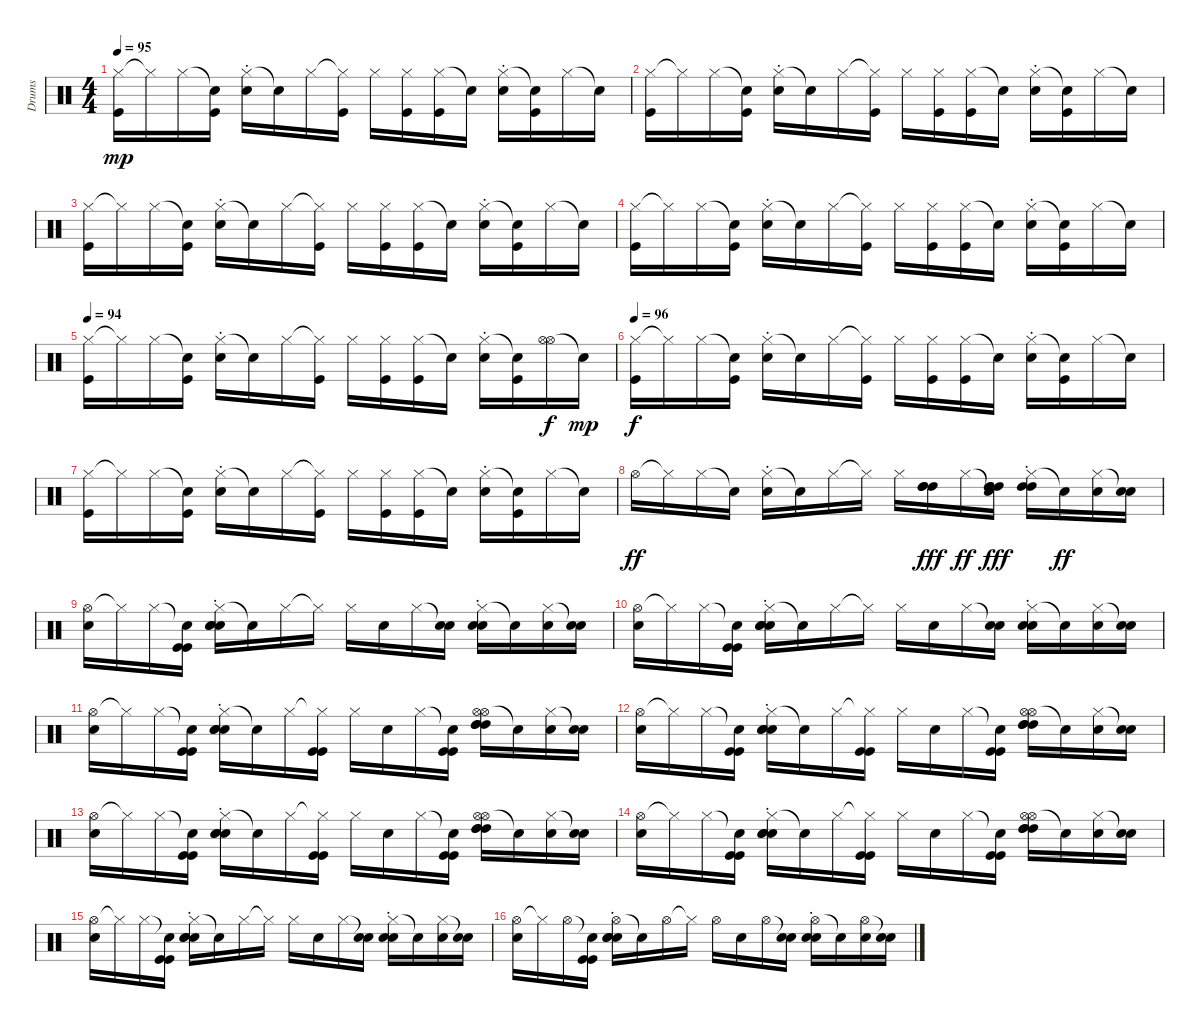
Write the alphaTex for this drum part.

\track ("Drums" "Drums") {instrument percussion}
\staff {score}
\articulation defaults
\ts (4 4)
\tempo 95
\clef neutral
\ks c
("Hi-Hat (closed)" "Kick (hit)").16{dy mp} "Hi-Hat (closed)"{t}.16 "Hi-Hat (closed)".16 ("Snare (hit)"{t} "Kick (hit)").16 ("Hi-Hat (closed)" "Snare (hit) 2"{st}).16 "Snare (hit)"{t}.16 "Hi-Hat (closed)".16 ("Hi-Hat (closed)"{t} "Kick (hit)").16 "Hi-Hat (closed)".16 ("Hi-Hat (closed)" "Kick (hit)").16 ("Hi-Hat (closed)" "Kick (hit)").16 "Snare (hit)"{t}.16 ("Hi-Hat (closed)" "Snare (hit) 2"{st}).16 ("Snare (hit)"{t} "Kick (hit)").16 "Hi-Hat (closed)".16 "Snare (hit)"{t}.16 |
("Hi-Hat (closed)" "Kick (hit)").16 "Hi-Hat (closed)"{t}.16 "Hi-Hat (closed)".16 ("Snare (hit)"{t} "Kick (hit)").16 ("Hi-Hat (closed)" "Snare (hit) 2"{st}).16 "Snare (hit)"{t}.16 "Hi-Hat (closed)".16 ("Hi-Hat (closed)"{t} "Kick (hit)").16 "Hi-Hat (closed)".16 ("Hi-Hat (closed)" "Kick (hit)").16 ("Hi-Hat (closed)" "Kick (hit)").16 "Snare (hit)"{t}.16 ("Hi-Hat (closed)" "Snare (hit) 2"{st}).16 ("Snare (hit)"{t} "Kick (hit)").16 "Hi-Hat (closed)".16 "Snare (hit)"{t}.16 |
("Hi-Hat (closed)" "Kick (hit)").16 "Hi-Hat (closed)"{t}.16 "Hi-Hat (closed)".16 ("Snare (hit)"{t} "Kick (hit)").16 ("Hi-Hat (closed)" "Snare (hit) 2"{st}).16 "Snare (hit)"{t}.16 "Hi-Hat (closed)".16 ("Hi-Hat (closed)"{t} "Kick (hit)").16 "Hi-Hat (closed)".16 ("Hi-Hat (closed)" "Kick (hit)").16 ("Hi-Hat (closed)" "Kick (hit)").16 "Snare (hit)"{t}.16 ("Hi-Hat (closed)" "Snare (hit) 2"{st}).16 ("Snare (hit)"{t} "Kick (hit)").16 "Hi-Hat (closed)".16 "Snare (hit)"{t}.16 |
("Hi-Hat (closed)" "Kick (hit)").16 "Hi-Hat (closed)"{t}.16 "Hi-Hat (closed)".16 ("Snare (hit)"{t} "Kick (hit)").16 ("Hi-Hat (closed)" "Snare (hit) 2"{st}).16 "Snare (hit)"{t}.16 "Hi-Hat (closed)".16 ("Hi-Hat (closed)"{t} "Kick (hit)").16 "Hi-Hat (closed)".16 ("Hi-Hat (closed)" "Kick (hit)").16 ("Hi-Hat (closed)" "Kick (hit)").16 "Snare (hit)"{t}.16 ("Hi-Hat (closed)" "Snare (hit) 2"{st}).16 ("Snare (hit)"{t} "Kick (hit)").16 "Hi-Hat (closed)".16 "Snare (hit)"{t}.16 |
\tempo 94
("Hi-Hat (closed)" "Kick (hit)").16 "Hi-Hat (closed)"{t}.16 "Hi-Hat (closed)".16 ("Snare (hit)"{t} "Kick (hit)").16 ("Hi-Hat (closed)" "Snare (hit) 2"{st}).16 "Snare (hit)"{t}.16 "Hi-Hat (closed)".16 ("Hi-Hat (closed)"{t} "Kick (hit)").16 "Hi-Hat (closed)".16 ("Hi-Hat (closed)" "Kick (hit)").16 ("Hi-Hat (closed)" "Kick (hit)").16 "Snare (hit)"{t}.16 ("Hi-Hat (closed)" "Snare (hit) 2"{st}).16 ("Snare (hit)"{t} "Kick (hit)").16 ("Hi-Hat (open)" "Hi-Hat (open)").16{dy f} "Snare (hit)"{t}.16{dy mp} |
\tempo 96
("Hi-Hat (closed)" "Kick (hit)").16{dy f} "Hi-Hat (closed)"{t}.16 "Hi-Hat (closed)".16 ("Snare (hit)"{t} "Kick (hit)").16 ("Hi-Hat (closed)" "Snare (hit) 2"{st}).16 "Snare (hit)"{t}.16 "Hi-Hat (closed)".16 ("Hi-Hat (closed)"{t} "Kick (hit)").16 "Hi-Hat (closed)".16 ("Hi-Hat (closed)" "Kick (hit)").16 ("Hi-Hat (closed)" "Kick (hit)").16 "Snare (hit)"{t}.16 ("Hi-Hat (closed)" "Snare (hit) 2"{st}).16 ("Snare (hit)"{t} "Kick (hit)").16 "Hi-Hat (closed)".16 "Snare (hit)"{t}.16 |
("Hi-Hat (closed)" "Kick (hit)").16 "Hi-Hat (closed)"{t}.16 "Hi-Hat (closed)".16 ("Snare (hit)"{t} "Kick (hit)").16 ("Hi-Hat (closed)" "Snare (hit) 2"{st}).16 "Snare (hit)"{t}.16 "Hi-Hat (closed)".16 ("Hi-Hat (closed)"{t} "Kick (hit)").16 "Hi-Hat (closed)".16 ("Hi-Hat (closed)" "Kick (hit)").16 ("Hi-Hat (closed)" "Kick (hit)").16 "Snare (hit)"{t}.16 ("Hi-Hat (closed)" "Snare (hit) 2"{st}).16 ("Snare (hit)"{t} "Kick (hit)").16 "Hi-Hat (closed)".16 "Snare (hit)"{t}.16 |
"Hi-Hat (open)".16{dy ff volume 14} "Hi-Hat (closed)"{t}.16 "Hi-Hat (closed)".16 "Snare (hit)"{t}.16 ("Hi-Hat (closed)" "Snare (hit) 2"{st}).16 "Snare (hit)"{t}.16 "Hi-Hat (closed)".16 "Hi-Hat (closed)"{t}.16 "Hi-Hat (closed)".16 ("High Tom (hit)" "High Tom (hit)" "High Tom (hit)").16{dy fff} "Hi-Hat (closed)".16{dy ff} ("Snare (hit)"{t} "High Tom (hit)" "High Tom (hit)" "High Tom (hit)").16{dy fff} ("Hi-Hat (closed)" "High Tom (hit)"{st} "High Tom (hit)").16 "Snare (hit)"{t}.16{dy ff} ("Hi-Hat (closed)" "Snare (hit) 2").16 ("Snare (hit)"{t} "Snare (hit) 2").16 |
("Hi-Hat (open)" "Snare (hit) 2").16 "Hi-Hat (closed)"{t}.16 "Hi-Hat (closed)".16 ("Snare (hit)"{t} "Kick (hit)" "Kick (hit)").16 ("Hi-Hat (closed)" "Snare (hit) 2"{st} "Snare (hit) 2" "Snare (hit) 2").16 "Snare (hit)"{t}.16 "Hi-Hat (closed)".16 "Hi-Hat (closed)"{t}.16 "Hi-Hat (closed)".16 "Snare (hit) 2".16 "Hi-Hat (closed)".16 ("Snare (hit)"{t} "Snare (hit) 2").16 ("Hi-Hat (closed)" "Snare (hit) 2"{st} "Snare (hit) 2").16 "Snare (hit)"{t}.16 ("Hi-Hat (closed)" "Snare (hit) 2").16 ("Snare (hit)"{t} "Snare (hit) 2").16 |
("Hi-Hat (open)" "Snare (hit) 2").16 "Hi-Hat (closed)"{t}.16 "Hi-Hat (closed)".16 ("Snare (hit)"{t} "Kick (hit)" "Kick (hit)").16 ("Hi-Hat (closed)" "Snare (hit) 2"{st} "Snare (hit) 2" "Snare (hit) 2").16 "Snare (hit)"{t}.16 "Hi-Hat (closed)".16 "Hi-Hat (closed)"{t}.16 "Hi-Hat (closed)".16 "Snare (hit) 2".16 "Hi-Hat (closed)".16 ("Snare (hit)"{t} "Snare (hit) 2").16 ("Hi-Hat (closed)" "Snare (hit) 2"{st} "Snare (hit) 2").16 "Snare (hit)"{t}.16 ("Hi-Hat (closed)" "Snare (hit) 2").16 ("Snare (hit)"{t} "Snare (hit) 2").16 |
("Hi-Hat (open)" "Snare (hit) 2").16 "Hi-Hat (closed)"{t}.16 "Hi-Hat (closed)".16 ("Snare (hit)"{t} "Kick (hit)" "Kick (hit)").16 ("Hi-Hat (closed)" "Snare (hit) 2"{st} "Snare (hit) 2" "Snare (hit) 2").16 "Snare (hit)"{t}.16 "Hi-Hat (closed)".16 ("Hi-Hat (closed)"{t} "Kick (hit)" "Kick (hit)").16 "Hi-Hat (closed)".16 "Snare (hit) 2".16 "Hi-Hat (closed)".16 ("Snare (hit)"{t} "Kick (hit)" "Kick (hit)").16 ("Hi-Hat (open)" "Hi-Hat (open)" "High Tom (hit)" "High Tom (hit)" "High Tom (hit)").16 "Snare (hit)"{t}.16 ("Hi-Hat (closed)" "Snare (hit) 2").16 ("Snare (hit)"{t} "Snare (hit) 2").16 |
("Hi-Hat (open)" "Snare (hit) 2").16 "Hi-Hat (closed)"{t}.16 "Hi-Hat (closed)".16 ("Snare (hit)"{t} "Kick (hit)" "Kick (hit)").16 ("Hi-Hat (closed)" "Snare (hit) 2"{st} "Snare (hit) 2" "Snare (hit) 2").16 "Snare (hit)"{t}.16 "Hi-Hat (closed)".16 ("Hi-Hat (closed)"{t} "Kick (hit)" "Kick (hit)").16 "Hi-Hat (closed)".16 "Snare (hit) 2".16 "Hi-Hat (closed)".16 ("Snare (hit)"{t} "Kick (hit)" "Kick (hit)").16 ("Hi-Hat (open)" "Hi-Hat (open)" "High Tom (hit)" "High Tom (hit)" "High Tom (hit)").16 "Snare (hit)"{t}.16 ("Hi-Hat (closed)" "Snare (hit) 2").16 ("Snare (hit)"{t} "Snare (hit) 2").16 |
("Hi-Hat (open)" "Snare (hit) 2").16 "Hi-Hat (closed)"{t}.16 "Hi-Hat (closed)".16 ("Snare (hit)"{t} "Kick (hit)" "Kick (hit)").16 ("Hi-Hat (closed)" "Snare (hit) 2"{st} "Snare (hit) 2" "Snare (hit) 2").16 "Snare (hit)"{t}.16 "Hi-Hat (closed)".16 ("Hi-Hat (closed)"{t} "Kick (hit)" "Kick (hit)").16 "Hi-Hat (closed)".16 "Snare (hit) 2".16 "Hi-Hat (closed)".16 ("Snare (hit)"{t} "Kick (hit)" "Kick (hit)").16 ("Hi-Hat (open)" "Hi-Hat (open)" "High Tom (hit)" "High Tom (hit)" "High Tom (hit)").16 "Snare (hit)"{t}.16 ("Hi-Hat (closed)" "Snare (hit) 2").16 ("Snare (hit)"{t} "Snare (hit) 2").16 |
("Hi-Hat (open)" "Snare (hit) 2").16 "Hi-Hat (closed)"{t}.16 "Hi-Hat (closed)".16 ("Snare (hit)"{t} "Kick (hit)" "Kick (hit)").16 ("Hi-Hat (closed)" "Snare (hit) 2"{st} "Snare (hit) 2" "Snare (hit) 2").16 "Snare (hit)"{t}.16 "Hi-Hat (closed)".16 ("Hi-Hat (closed)"{t} "Kick (hit)" "Kick (hit)").16 "Hi-Hat (closed)".16 "Snare (hit) 2".16 "Hi-Hat (closed)".16 ("Snare (hit)"{t} "Kick (hit)" "Kick (hit)").16 ("Hi-Hat (open)" "Hi-Hat (open)" "High Tom (hit)" "High Tom (hit)" "High Tom (hit)").16 "Snare (hit)"{t}.16 ("Hi-Hat (closed)" "Snare (hit) 2").16 ("Snare (hit)"{t} "Snare (hit) 2").16 |
("Hi-Hat (open)" "Snare (hit) 2").16 "Hi-Hat (closed)"{t}.16 "Hi-Hat (closed)".16 ("Snare (hit)"{t} "Kick (hit)" "Kick (hit)").16 ("Hi-Hat (closed)" "Snare (hit) 2"{st} "Snare (hit) 2" "Snare (hit) 2").16 "Snare (hit)"{t}.16 "Hi-Hat (closed)".16 "Hi-Hat (closed)"{t}.16 "Hi-Hat (closed)".16 "Snare (hit) 2".16 "Hi-Hat (closed)".16 ("Snare (hit)"{t} "Snare (hit) 2").16 ("Hi-Hat (closed)" "Snare (hit) 2"{st} "Snare (hit) 2").16 "Snare (hit)"{t}.16 ("Hi-Hat (closed)" "Snare (hit) 2").16 ("Snare (hit)"{t} "Snare (hit) 2").16 |
("Hi-Hat (open)" "Snare (hit) 2").16 "Hi-Hat (closed)"{t}.16 "Hi-Hat (open)".16 ("Snare (hit)"{t} "Kick (hit)" "Kick (hit)").16 ("Hi-Hat (open)" "Snare (hit) 2"{st} "Snare (hit) 2" "Snare (hit) 2").16 "Snare (hit)"{t}.16 "Hi-Hat (open)".16 "Hi-Hat (closed)"{t}.16 "Hi-Hat (open)".16 "Snare (hit) 2".16 "Hi-Hat (open)".16 ("Snare (hit)"{t} "Snare (hit) 2").16 ("Hi-Hat (open)" "Snare (hit) 2"{st} "Snare (hit) 2").16 "Snare (hit)"{t}.16 ("Hi-Hat (open)" "Snare (hit) 2").16 ("Snare (hit)"{t} "Snare (hit) 2").16
